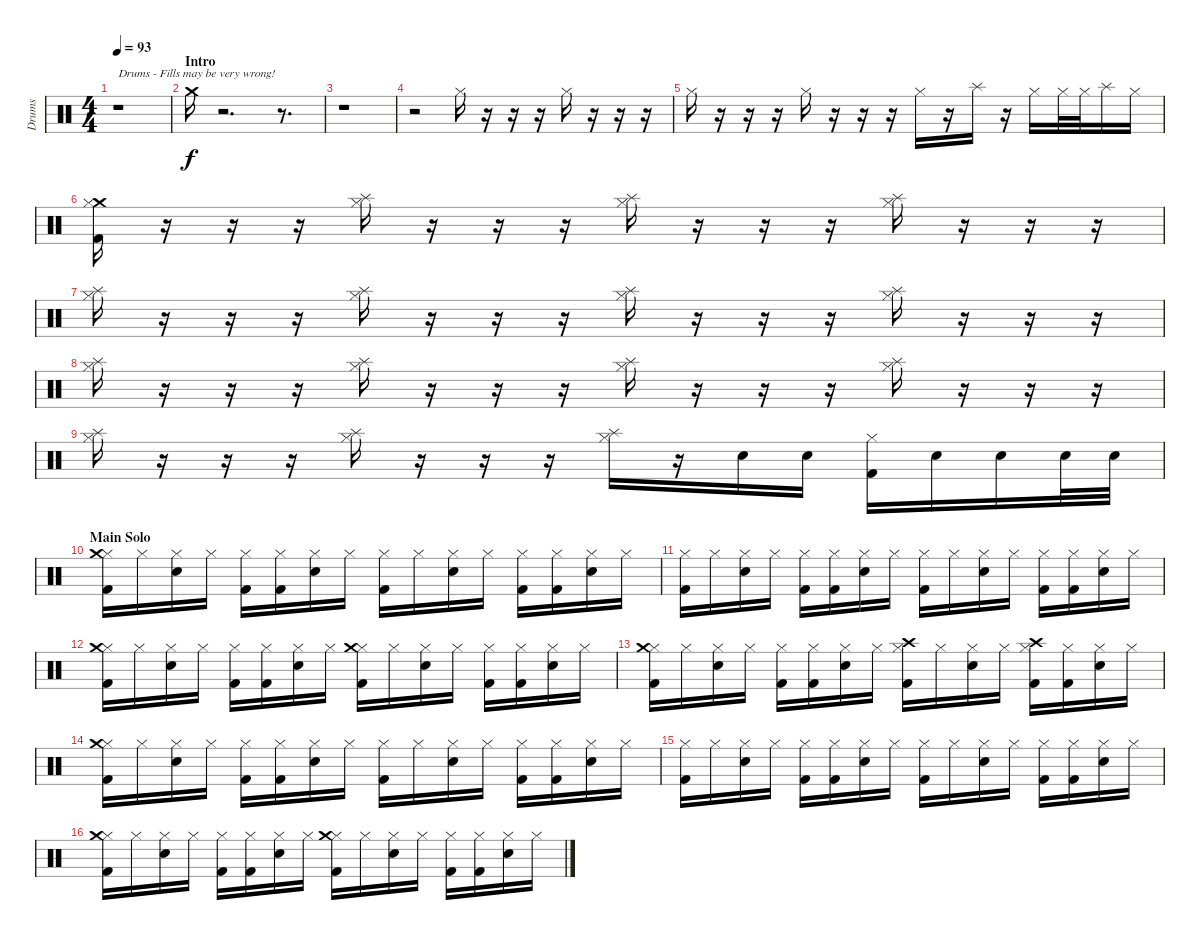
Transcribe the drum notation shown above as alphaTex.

\track ("Drums" "Drums") {instrument percussion}
\staff {score}
\articulation defaults
\ts (4 4)
\tempo 93
\clef neutral
\ks c
r.1{txt "Drums - Fills may be very wrong!" dy f} |
\section ("" "Intro")
"Crash medium (hit)".16 r.2{d} r.8{d} |
r.1 |
r.2 "Hi-Hat (closed)".16 r.16 r.16 r.16 "Hi-Hat (closed)".16 r.16 r.16 r.16 |
"Hi-Hat (closed)".16 r.16 r.16 r.16 "Hi-Hat (closed)".16 r.16 r.16 r.16 "Hi-Hat (closed)".16 r.16 "Splash (hit)".16 r.16 "Hi-Hat (closed)".16 "Hi-Hat (closed)".32 "Hi-Hat (closed)".32 "Splash (hit)".16 "Hi-Hat (closed)".16 |
("Crash medium (hit)" "Hi-Hat (closed)" "Kick (hit) 2").16 r.16 r.16 r.16 ("Splash (hit)" "Hi-Hat (closed)").16 r.16 r.16 r.16 ("Splash (hit)" "Hi-Hat (closed)").16 r.16 r.16 r.16 ("Splash (hit)" "Hi-Hat (closed)").16 r.16 r.16 r.16 |
("Splash (hit)" "Hi-Hat (closed)").16 r.16 r.16 r.16 ("Splash (hit)" "Hi-Hat (closed)").16 r.16 r.16 r.16 ("Splash (hit)" "Hi-Hat (closed)").16 r.16 r.16 r.16 ("Splash (hit)" "Hi-Hat (closed)").16 r.16 r.16 r.16 |
("Splash (hit)" "Hi-Hat (closed)").16 r.16 r.16 r.16 ("Splash (hit)" "Hi-Hat (closed)").16 r.16 r.16 r.16 ("Splash (hit)" "Hi-Hat (closed)").16 r.16 r.16 r.16 ("Splash (hit)" "Hi-Hat (closed)").16 r.16 r.16 r.16 |
("Splash (hit)" "Hi-Hat (closed)").16 r.16 r.16 r.16 ("Splash (hit)" "Hi-Hat (closed)").16 r.16 r.16 r.16 ("Splash (hit)" "Hi-Hat (closed)").16 r.16 "Snare (hit) 2".16 "Snare (hit) 2".16 ("Hi-Hat (closed)" "Kick (hit) 2").16 "Snare (hit) 2".16 "Snare (hit) 2".16 "Snare (hit) 2".32 "Snare (hit) 2".32 |
\section ("" "Main Solo")
("Hi-Hat (closed)" "Crash medium (hit)" "Kick (hit) 2").16 "Hi-Hat (closed)".16 ("Hi-Hat (closed)" "Snare (hit) 2").16 "Hi-Hat (closed)".16 ("Hi-Hat (closed)" "Kick (hit) 2").16 ("Hi-Hat (closed)" "Kick (hit) 2").16 ("Hi-Hat (closed)" "Snare (hit) 2").16 "Hi-Hat (closed)".16 ("Hi-Hat (closed)" "Kick (hit) 2").16 "Hi-Hat (closed)".16 ("Hi-Hat (closed)" "Snare (hit) 2").16 "Hi-Hat (closed)".16 ("Hi-Hat (closed)" "Kick (hit) 2").16 ("Hi-Hat (closed)" "Kick (hit) 2").16 ("Hi-Hat (closed)" "Snare (hit) 2").16 "Hi-Hat (closed)".16 |
("Hi-Hat (closed)" "Kick (hit) 2").16 "Hi-Hat (closed)".16 ("Hi-Hat (closed)" "Snare (hit) 2").16 "Hi-Hat (closed)".16 ("Hi-Hat (closed)" "Kick (hit) 2").16 ("Hi-Hat (closed)" "Kick (hit) 2").16 ("Hi-Hat (closed)" "Snare (hit) 2").16 "Hi-Hat (closed)".16 ("Hi-Hat (closed)" "Kick (hit) 2").16 "Hi-Hat (closed)".16 ("Hi-Hat (closed)" "Snare (hit) 2").16 "Hi-Hat (closed)".16 ("Hi-Hat (closed)" "Kick (hit) 2").16 ("Hi-Hat (closed)" "Kick (hit) 2").16 ("Hi-Hat (closed)" "Snare (hit) 2").16 "Hi-Hat (closed)".16 |
("Hi-Hat (closed)" "Crash medium (hit)" "Kick (hit) 2").16 "Hi-Hat (closed)".16 ("Hi-Hat (closed)" "Snare (hit) 2").16 "Hi-Hat (closed)".16 ("Hi-Hat (closed)" "Kick (hit) 2").16 ("Hi-Hat (closed)" "Kick (hit) 2").16 ("Hi-Hat (closed)" "Snare (hit) 2").16 "Hi-Hat (closed)".16 ("Hi-Hat (closed)" "Crash medium (hit)" "Kick (hit) 2").16 "Hi-Hat (closed)".16 ("Hi-Hat (closed)" "Snare (hit) 2").16 "Hi-Hat (closed)".16 ("Hi-Hat (closed)" "Kick (hit) 2").16 ("Hi-Hat (closed)" "Kick (hit) 2").16 ("Hi-Hat (closed)" "Snare (hit) 2").16 "Hi-Hat (closed)".16 |
("Hi-Hat (closed)" "Crash medium (hit)" "Kick (hit) 2").16 "Hi-Hat (closed)".16 ("Hi-Hat (closed)" "Snare (hit) 2").16 "Hi-Hat (closed)".16 ("Hi-Hat (closed)" "Kick (hit) 2").16 ("Hi-Hat (closed)" "Kick (hit) 2").16 ("Hi-Hat (closed)" "Snare (hit) 2").16 "Hi-Hat (closed)".16 ("Hi-Hat (closed)" "Crash high (hit)" "Kick (hit) 2").16 "Hi-Hat (closed)".16 ("Hi-Hat (closed)" "Snare (hit) 2").16 "Hi-Hat (closed)".16 ("Hi-Hat (closed)" "Crash high (hit)" "Kick (hit) 2").16 ("Hi-Hat (closed)" "Kick (hit) 2").16 ("Hi-Hat (closed)" "Snare (hit) 2").16 "Hi-Hat (closed)".16 |
("Hi-Hat (closed)" "Crash medium (hit)" "Kick (hit) 2").16 "Hi-Hat (closed)".16 ("Hi-Hat (closed)" "Snare (hit) 2").16 "Hi-Hat (closed)".16 ("Hi-Hat (closed)" "Kick (hit) 2").16 ("Hi-Hat (closed)" "Kick (hit) 2").16 ("Hi-Hat (closed)" "Snare (hit) 2").16 "Hi-Hat (closed)".16 ("Hi-Hat (closed)" "Kick (hit) 2").16 "Hi-Hat (closed)".16 ("Hi-Hat (closed)" "Snare (hit) 2").16 "Hi-Hat (closed)".16 ("Hi-Hat (closed)" "Kick (hit) 2").16 ("Hi-Hat (closed)" "Kick (hit) 2").16 ("Hi-Hat (closed)" "Snare (hit) 2").16 "Hi-Hat (closed)".16 |
("Hi-Hat (closed)" "Kick (hit) 2").16 "Hi-Hat (closed)".16 ("Hi-Hat (closed)" "Snare (hit) 2").16 "Hi-Hat (closed)".16 ("Hi-Hat (closed)" "Kick (hit) 2").16 ("Hi-Hat (closed)" "Kick (hit) 2").16 ("Hi-Hat (closed)" "Snare (hit) 2").16 "Hi-Hat (closed)".16 ("Hi-Hat (closed)" "Kick (hit) 2").16 "Hi-Hat (closed)".16 ("Hi-Hat (closed)" "Snare (hit) 2").16 "Hi-Hat (closed)".16 ("Hi-Hat (closed)" "Kick (hit) 2").16 ("Hi-Hat (closed)" "Kick (hit) 2").16 ("Hi-Hat (closed)" "Snare (hit) 2").16 "Hi-Hat (closed)".16 |
("Hi-Hat (closed)" "Crash medium (hit)" "Kick (hit) 2").16 "Hi-Hat (closed)".16 ("Hi-Hat (closed)" "Snare (hit) 2").16 "Hi-Hat (closed)".16 ("Hi-Hat (closed)" "Kick (hit) 2").16 ("Hi-Hat (closed)" "Kick (hit) 2").16 ("Hi-Hat (closed)" "Snare (hit) 2").16 "Hi-Hat (closed)".16 ("Hi-Hat (closed)" "Crash medium (hit)" "Kick (hit) 2").16 "Hi-Hat (closed)".16 ("Hi-Hat (closed)" "Snare (hit) 2").16 "Hi-Hat (closed)".16 ("Hi-Hat (closed)" "Kick (hit) 2").16 ("Hi-Hat (closed)" "Kick (hit) 2").16 ("Hi-Hat (closed)" "Snare (hit) 2").16 "Hi-Hat (closed)".16
